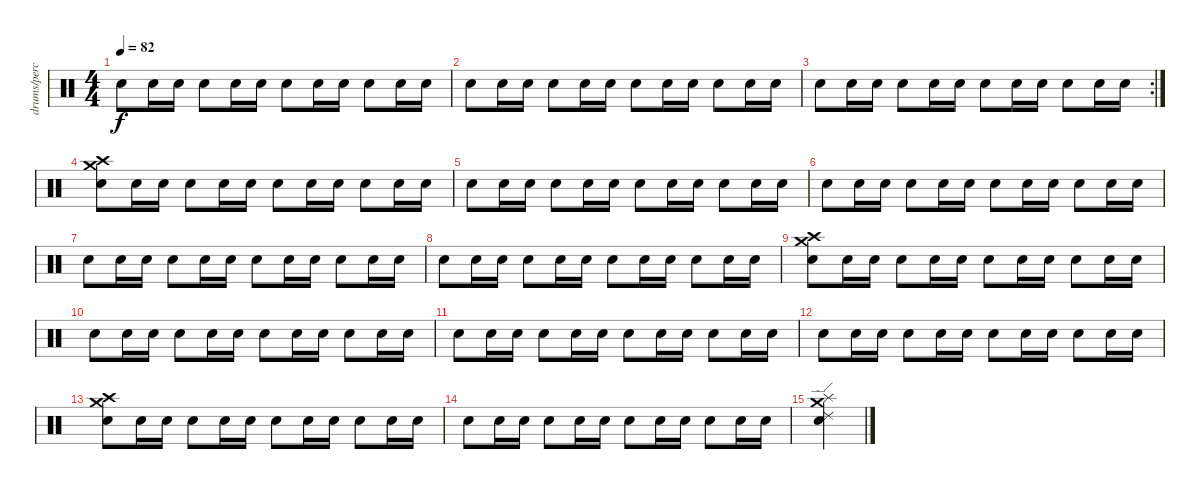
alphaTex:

\track ("drums/percussion" "drums/perc") {instrument percussion}
\staff {score}
\articulation defaults
\ts (4 4)
\tempo 82
\clef neutral
\ks c "Electric Snare (hit)".8{dy f} "Electric Snare (hit)".16 "Electric Snare (hit)".16 "Electric Snare (hit)".8 "Electric Snare (hit)".16 "Electric Snare (hit)".16 "Electric Snare (hit)".8 "Electric Snare (hit)".16 "Electric Snare (hit)".16 "Electric Snare (hit)".8 "Electric Snare (hit)".16 "Electric Snare (hit)".16
|
"Electric Snare (hit)".8 "Electric Snare (hit)".16 "Electric Snare (hit)".16 "Electric Snare (hit)".8 "Electric Snare (hit)".16 "Electric Snare (hit)".16 "Electric Snare (hit)".8 "Electric Snare (hit)".16 "Electric Snare (hit)".16 "Electric Snare (hit)".8 "Electric Snare (hit)".16 "Electric Snare (hit)".16 |
\rc 2 "Electric Snare (hit)".8 "Electric Snare (hit)".16 "Electric Snare (hit)".16 "Electric Snare (hit)".8 "Electric Snare (hit)".16 "Electric Snare (hit)".16 "Electric Snare (hit)".8 "Electric Snare (hit)".16 "Electric Snare (hit)".16 "Electric Snare (hit)".8 "Electric Snare (hit)".16 "Electric Snare (hit)".16
|
("Crash medium (hit)" "Crash high (hit)" "Electric Snare (hit)").8 "Electric Snare (hit)".16 "Electric Snare (hit)".16 "Electric Snare (hit)".8 "Electric Snare (hit)".16 "Electric Snare (hit)".16 "Electric Snare (hit)".8 "Electric Snare (hit)".16 "Electric Snare (hit)".16 "Electric Snare (hit)".8 "Electric Snare (hit)".16 "Electric Snare (hit)".16 |
"Electric Snare (hit)".8 "Electric Snare (hit)".16 "Electric Snare (hit)".16 "Electric Snare (hit)".8 "Electric Snare (hit)".16 "Electric Snare (hit)".16 "Electric Snare (hit)".8 "Electric Snare (hit)".16 "Electric Snare (hit)".16 "Electric Snare (hit)".8 "Electric Snare (hit)".16 "Electric Snare (hit)".16 |
"Electric Snare (hit)".8 "Electric Snare (hit)".16 "Electric Snare (hit)".16 "Electric Snare (hit)".8 "Electric Snare (hit)".16 "Electric Snare (hit)".16 "Electric Snare (hit)".8 "Electric Snare (hit)".16 "Electric Snare (hit)".16 "Electric Snare (hit)".8 "Electric Snare (hit)".16 "Electric Snare (hit)".16 |
"Electric Snare (hit)".8 "Electric Snare (hit)".16 "Electric Snare (hit)".16 "Electric Snare (hit)".8 "Electric Snare (hit)".16 "Electric Snare (hit)".16 "Electric Snare (hit)".8 "Electric Snare (hit)".16 "Electric Snare (hit)".16 "Electric Snare (hit)".8 "Electric Snare (hit)".16 "Electric Snare (hit)".16 |
"Electric Snare (hit)".8 "Electric Snare (hit)".16 "Electric Snare (hit)".16 "Electric Snare (hit)".8 "Electric Snare (hit)".16 "Electric Snare (hit)".16 "Electric Snare (hit)".8 "Electric Snare (hit)".16 "Electric Snare (hit)".16 "Electric Snare (hit)".8 "Electric Snare (hit)".16 "Electric Snare (hit)".16 |
("Crash medium (hit)" "Crash high (hit)" "Electric Snare (hit)").8 "Electric Snare (hit)".16 "Electric Snare (hit)".16 "Electric Snare (hit)".8 "Electric Snare (hit)".16 "Electric Snare (hit)".16 "Electric Snare (hit)".8 "Electric Snare (hit)".16 "Electric Snare (hit)".16 "Electric Snare (hit)".8 "Electric Snare (hit)".16 "Electric Snare (hit)".16 |
"Electric Snare (hit)".8 "Electric Snare (hit)".16 "Electric Snare (hit)".16 "Electric Snare (hit)".8 "Electric Snare (hit)".16 "Electric Snare (hit)".16 "Electric Snare (hit)".8 "Electric Snare (hit)".16 "Electric Snare (hit)".16 "Electric Snare (hit)".8 "Electric Snare (hit)".16 "Electric Snare (hit)".16 |
"Electric Snare (hit)".8 "Electric Snare (hit)".16 "Electric Snare (hit)".16 "Electric Snare (hit)".8 "Electric Snare (hit)".16 "Electric Snare (hit)".16 "Electric Snare (hit)".8 "Electric Snare (hit)".16 "Electric Snare (hit)".16 "Electric Snare (hit)".8 "Electric Snare (hit)".16 "Electric Snare (hit)".16 |
"Electric Snare (hit)".8 "Electric Snare (hit)".16 "Electric Snare (hit)".16 "Electric Snare (hit)".8 "Electric Snare (hit)".16 "Electric Snare (hit)".16 "Electric Snare (hit)".8 "Electric Snare (hit)".16 "Electric Snare (hit)".16 "Electric Snare (hit)".8 "Electric Snare (hit)".16 "Electric Snare (hit)".16 |
("Crash medium (hit)" "Crash high (hit)" "Electric Snare (hit)").8 "Electric Snare (hit)".16 "Electric Snare (hit)".16 "Electric Snare (hit)".8 "Electric Snare (hit)".16 "Electric Snare (hit)".16 "Electric Snare (hit)".8 "Electric Snare (hit)".16 "Electric Snare (hit)".16 "Electric Snare (hit)".8 "Electric Snare (hit)".16 "Electric Snare (hit)".16 |
"Electric Snare (hit)".8 "Electric Snare (hit)".16 "Electric Snare (hit)".16 "Electric Snare (hit)".8 "Electric Snare (hit)".16 "Electric Snare (hit)".16 "Electric Snare (hit)".8 "Electric Snare (hit)".16 "Electric Snare (hit)".16 "Electric Snare (hit)".8 "Electric Snare (hit)".16 "Electric Snare (hit)".16 |
("Splash (hit)" "Ride (edge) 2" "Crash medium (hit)" "Electric Snare (hit)").4
